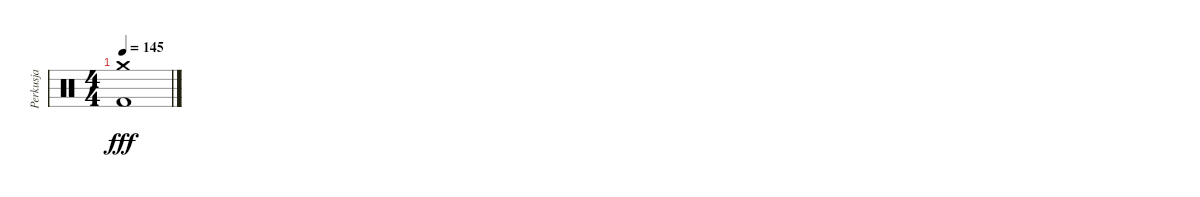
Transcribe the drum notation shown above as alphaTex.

\track ("Perkusja" "Perkusja") {instrument percussion}
\staff {score}
\articulation defaults
\ts (4 4)
\tempo 145
\clef neutral
\ks c
("Crash medium (hit)" "Kick (hit) 2").1{dy fff}
